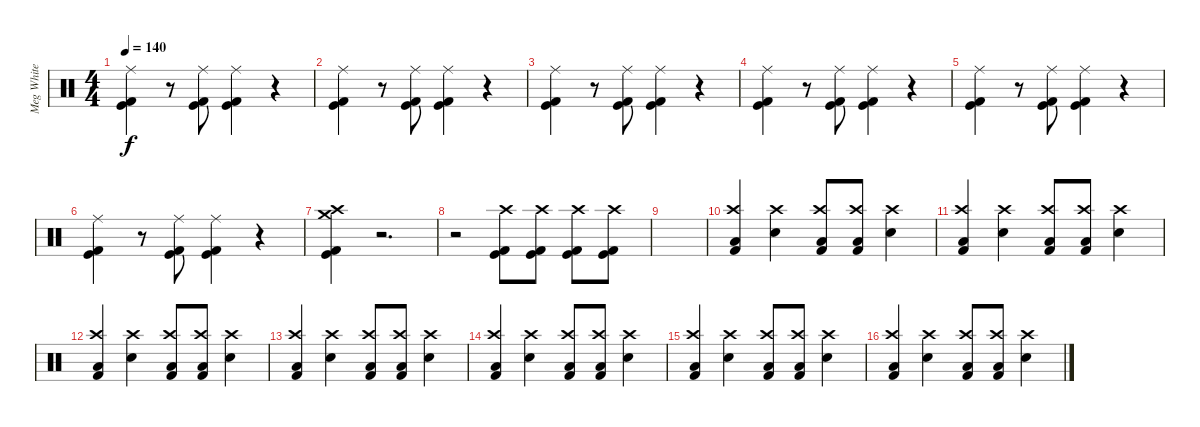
\track ("Meg White" "Meg White") {instrument percussion}
\staff {score}
\articulation defaults
\ts (4 4)
\tempo 140
\clef neutral
\ks c
("Kick (hit) 2" "Kick (hit)" "Ride (middle)").4{dy f} r.8 ("Kick (hit) 2" "Kick (hit)" "Ride (middle)").8 ("Kick (hit) 2" "Kick (hit)" "Ride (middle)").4 r.4 |
("Kick (hit) 2" "Kick (hit)" "Ride (middle)").4 r.8 ("Kick (hit) 2" "Kick (hit)" "Ride (middle)").8 ("Kick (hit) 2" "Kick (hit)" "Ride (middle)").4 r.4 |
("Kick (hit) 2" "Kick (hit)" "Ride (middle)").4 r.8 ("Kick (hit) 2" "Kick (hit)" "Ride (middle)").8 ("Kick (hit) 2" "Kick (hit)" "Ride (middle)").4 r.4 |
("Kick (hit) 2" "Kick (hit)" "Ride (middle)").4 r.8 ("Kick (hit) 2" "Kick (hit)" "Ride (middle)").8 ("Kick (hit) 2" "Kick (hit)" "Ride (middle)").4 r.4 |
("Kick (hit) 2" "Kick (hit)" "Ride (middle)").4 r.8 ("Kick (hit) 2" "Kick (hit)" "Ride (middle)").8 ("Kick (hit) 2" "Kick (hit)" "Ride (middle)").4 r.4 |
("Kick (hit) 2" "Kick (hit)" "Ride (middle)").4 r.8 ("Kick (hit) 2" "Kick (hit)" "Ride (middle)").8 ("Kick (hit) 2" "Kick (hit)" "Ride (middle)").4 r.4 |
("Kick (hit) 2" "Kick (hit)" "Crash high (hit)" "Crash medium (hit)").4 r.2{d} |
r.2 ("Kick (hit) 2" "Kick (hit)" "Crash high (hit)").8 ("Kick (hit) 2" "Kick (hit)" "Crash high (hit)").8 ("Kick (hit) 2" "Kick (hit)" "Crash high (hit)").8 ("Kick (hit) 2" "Kick (hit)" "Crash high (hit)").8 |
|
("Kick (hit) 2" "Low Floor Tom (hit)" "Crash high (hit)").4 ("Electric Snare (hit)" "Crash high (hit)").4 ("Kick (hit) 2" "Low Floor Tom (hit)" "Crash high (hit)").8 ("Kick (hit) 2" "Low Floor Tom (hit)" "Crash high (hit)").8 ("Electric Snare (hit)" "Crash high (hit)").4 |
("Kick (hit) 2" "Low Floor Tom (hit)" "Crash high (hit)").4 ("Electric Snare (hit)" "Crash high (hit)").4 ("Kick (hit) 2" "Low Floor Tom (hit)" "Crash high (hit)").8 ("Kick (hit) 2" "Low Floor Tom (hit)" "Crash high (hit)").8 ("Electric Snare (hit)" "Crash high (hit)").4 |
("Kick (hit) 2" "Low Floor Tom (hit)" "Crash high (hit)").4 ("Electric Snare (hit)" "Crash high (hit)").4 ("Kick (hit) 2" "Low Floor Tom (hit)" "Crash high (hit)").8 ("Kick (hit) 2" "Low Floor Tom (hit)" "Crash high (hit)").8 ("Electric Snare (hit)" "Crash high (hit)").4 |
("Kick (hit) 2" "Low Floor Tom (hit)" "Crash high (hit)").4 ("Electric Snare (hit)" "Crash high (hit)").4 ("Kick (hit) 2" "Low Floor Tom (hit)" "Crash high (hit)").8 ("Kick (hit) 2" "Low Floor Tom (hit)" "Crash high (hit)").8 ("Electric Snare (hit)" "Crash high (hit)").4 |
("Kick (hit) 2" "Low Floor Tom (hit)" "Crash high (hit)").4 ("Electric Snare (hit)" "Crash high (hit)").4 ("Kick (hit) 2" "Low Floor Tom (hit)" "Crash high (hit)").8 ("Kick (hit) 2" "Low Floor Tom (hit)" "Crash high (hit)").8 ("Electric Snare (hit)" "Crash high (hit)").4 |
("Kick (hit) 2" "Low Floor Tom (hit)" "Crash high (hit)").4 ("Electric Snare (hit)" "Crash high (hit)").4 ("Kick (hit) 2" "Low Floor Tom (hit)" "Crash high (hit)").8 ("Kick (hit) 2" "Low Floor Tom (hit)" "Crash high (hit)").8 ("Electric Snare (hit)" "Crash high (hit)").4 |
("Kick (hit) 2" "Low Floor Tom (hit)" "Crash high (hit)").4 ("Electric Snare (hit)" "Crash high (hit)").4 ("Kick (hit) 2" "Low Floor Tom (hit)" "Crash high (hit)").8 ("Kick (hit) 2" "Low Floor Tom (hit)" "Crash high (hit)").8 ("Electric Snare (hit)" "Crash high (hit)").4
